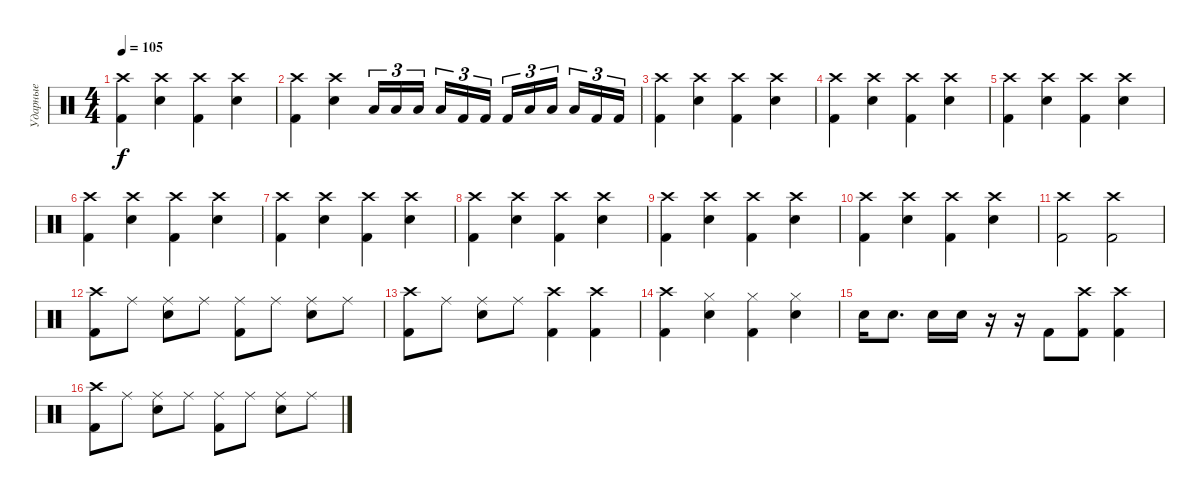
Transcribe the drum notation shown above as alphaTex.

\track ("Ударные" "Ударные") {instrument percussion}
\staff {score}
\articulation defaults
\ts (4 4)
\tempo 105
\clef neutral
\ks c
("Crash high (hit)" "Kick (hit) 2").4{dy f} ("Crash high (hit)" "Electric Snare (hit)").4 ("Kick (hit) 2" "Crash high (hit)").4 ("Crash high (hit)" "Electric Snare (hit)").4 |
("Crash high (hit)" "Kick (hit) 2").4 ("Crash high (hit)" "Electric Snare (hit)").4 "Low Tom (hit)".16{tu (3 2)} "Low Tom (hit)".16{tu (3 2)} "Low Tom (hit)".16{tu (3 2) beam splitsecondary} "Low Tom (hit)".16{tu (3 2)} "Kick (hit) 2".16{tu (3 2)} "Kick (hit) 2".16{tu (3 2)} "Kick (hit) 2".16{tu (3 2)} "Low Tom (hit)".16{tu (3 2)} "Low Tom (hit)".16{tu (3 2) beam splitsecondary} "Low Tom (hit)".16{tu (3 2)} "Kick (hit) 2".16{tu (3 2)} "Kick (hit) 2".16{tu (3 2)} |
("Crash high (hit)" "Kick (hit) 2").4 ("Crash high (hit)" "Electric Snare (hit)").4 ("Kick (hit) 2" "Crash high (hit)").4 ("Crash high (hit)" "Electric Snare (hit)").4 |
("Crash high (hit)" "Kick (hit) 2").4 ("Crash high (hit)" "Electric Snare (hit)").4 ("Kick (hit) 2" "Crash high (hit)").4 ("Crash high (hit)" "Electric Snare (hit)").4 |
("Crash high (hit)" "Kick (hit) 2").4 ("Crash high (hit)" "Electric Snare (hit)").4 ("Kick (hit) 2" "Crash high (hit)").4 ("Crash high (hit)" "Electric Snare (hit)").4 |
("Crash high (hit)" "Kick (hit) 2").4 ("Crash high (hit)" "Electric Snare (hit)").4 ("Kick (hit) 2" "Crash high (hit)").4 ("Crash high (hit)" "Electric Snare (hit)").4 |
("Crash high (hit)" "Kick (hit) 2").4 ("Crash high (hit)" "Electric Snare (hit)").4 ("Kick (hit) 2" "Crash high (hit)").4 ("Crash high (hit)" "Electric Snare (hit)").4 |
("Crash high (hit)" "Kick (hit) 2").4 ("Crash high (hit)" "Electric Snare (hit)").4 ("Kick (hit) 2" "Crash high (hit)").4 ("Crash high (hit)" "Electric Snare (hit)").4 |
("Crash high (hit)" "Kick (hit) 2").4 ("Crash high (hit)" "Electric Snare (hit)").4 ("Kick (hit) 2" "Crash high (hit)").4 ("Crash high (hit)" "Electric Snare (hit)").4 |
("Crash high (hit)" "Kick (hit) 2").4 ("Crash high (hit)" "Electric Snare (hit)").4 ("Kick (hit) 2" "Crash high (hit)").4 ("Crash high (hit)" "Electric Snare (hit)").4 |
("Crash high (hit)" "Kick (hit) 2").2 ("Kick (hit) 2" "Crash high (hit)").2 |
("Crash high (hit)" "Kick (hit) 2").8 "Ride (middle)".8 ("Electric Snare (hit)" "Ride (middle)").8 "Ride (middle)".8 ("Kick (hit) 2" "Ride (middle)").8 "Ride (middle)".8 ("Electric Snare (hit)" "Ride (middle)").8 "Ride (middle)".8 |
("Crash high (hit)" "Kick (hit) 2").8 "Ride (middle)".8 ("Electric Snare (hit)" "Ride (middle)").8 "Ride (middle)".8 ("Crash high (hit)" "Kick (hit) 2").4 ("Kick (hit) 2" "Crash high (hit)").4 |
("Kick (hit) 2" "Crash high (hit)").4 ("Hi-Hat (closed)" "Electric Snare (hit)").4 ("Hi-Hat (closed)" "Kick (hit) 2").4 ("Hi-Hat (closed)" "Electric Snare (hit)").4 |
"Electric Snare (hit)".16 "Electric Snare (hit)".8{d} "Electric Snare (hit)".16 "Electric Snare (hit)".16 r.16 r.16 "Kick (hit) 2".8 ("Crash high (hit)" "Kick (hit) 2").8 ("Kick (hit) 2" "Crash high (hit)").4 |
("Crash high (hit)" "Kick (hit) 2").8 "Ride (middle)".8 ("Electric Snare (hit)" "Ride (middle)").8 "Ride (middle)".8 ("Kick (hit) 2" "Ride (middle)").8 "Ride (middle)".8 ("Electric Snare (hit)" "Ride (middle)").8 "Ride (middle)".8
